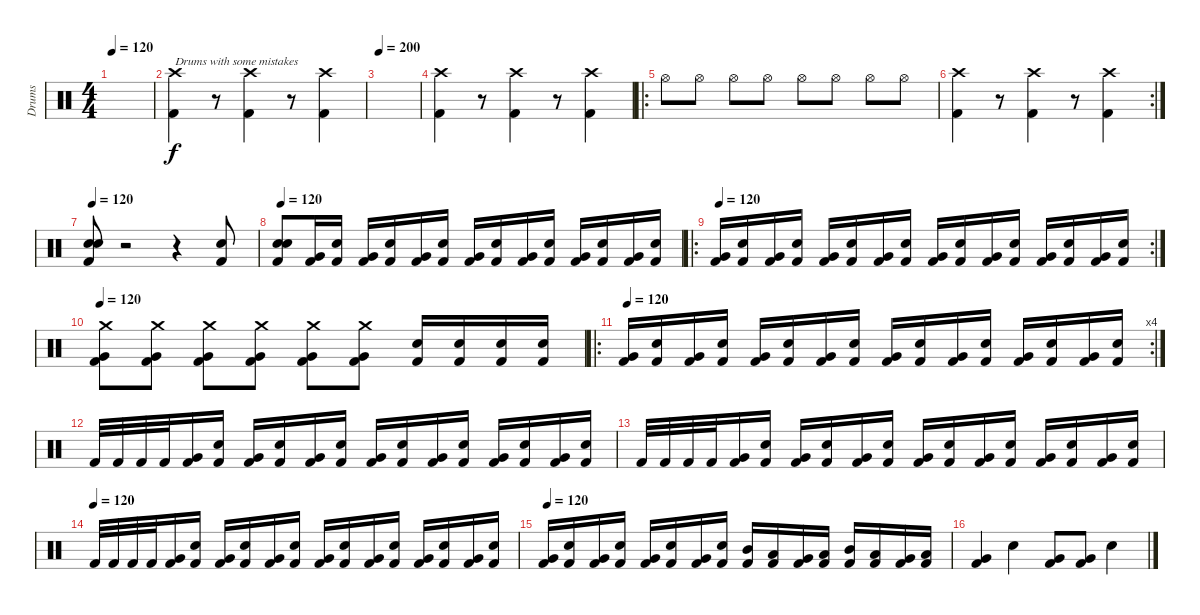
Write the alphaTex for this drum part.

\track ("Drums" "Drums") {instrument percussion}
\staff {score}
\articulation defaults
\ts (4 4)
\tempo 120
\tempo 200
\tempo 120
\clef neutral
\ks c
|
("Crash high (hit)" "Kick (hit) 2").4{txt "Drums with some mistakes"} r.8 ("Crash high (hit)" "Kick (hit) 2").4 r.8 ("Crash high (hit)" "Kick (hit) 2").4 |
\tempo 200
|
("Crash high (hit)" "Kick (hit) 2").4 r.8 ("Crash high (hit)" "Kick (hit) 2").4 r.8 ("Crash high (hit)" "Kick (hit) 2").4 |
\ro "Hi-Hat (open)".8 "Hi-Hat (open)".8 "Hi-Hat (open)".8 "Hi-Hat (open)".8 "Hi-Hat (open)".8 "Hi-Hat (open)".8 "Hi-Hat (open)".8 "Hi-Hat (open)".8
|
\rc 2
("Crash high (hit)" "Kick (hit) 2").4 r.8 ("Crash high (hit)" "Kick (hit) 2").4 r.8 ("Crash high (hit)" "Kick (hit) 2").4 |
\tempo 120
("Snare (hit) 2" "Snare (hit) 2" "Kick (hit) 2").8 r.2 r.4 ("Snare (hit) 2" "Kick (hit) 2").8 |
\tempo 120
("Snare (hit) 2" "Snare (hit) 2" "Kick (hit) 2").8 ("Very Low Tom (hit)" "Kick (hit) 2").16 ("Snare (hit) 2" "Kick (hit) 2").16 ("Very Low Tom (hit)" "Kick (hit) 2").16 ("Snare (hit) 2" "Kick (hit) 2").16 ("Very Low Tom (hit)" "Kick (hit) 2").16 ("Snare (hit) 2" "Kick (hit) 2").16 ("Very Low Tom (hit)" "Kick (hit) 2").16 ("Snare (hit) 2" "Kick (hit) 2").16 ("Very Low Tom (hit)" "Kick (hit) 2").16 ("Snare (hit) 2" "Kick (hit) 2").16 ("Very Low Tom (hit)" "Kick (hit) 2").16 ("Snare (hit) 2" "Kick (hit) 2").16 ("Very Low Tom (hit)" "Kick (hit) 2").16 ("Snare (hit) 2" "Kick (hit) 2").16 |
\ro
\rc 2
\tempo 120
("Very Low Tom (hit)" "Kick (hit) 2").16 ("Snare (hit) 2" "Kick (hit) 2").16 ("Very Low Tom (hit)" "Kick (hit) 2").16 ("Snare (hit) 2" "Kick (hit) 2").16 ("Very Low Tom (hit)" "Kick (hit) 2").16 ("Snare (hit) 2" "Kick (hit) 2").16 ("Very Low Tom (hit)" "Kick (hit) 2").16 ("Snare (hit) 2" "Kick (hit) 2").16 ("Very Low Tom (hit)" "Kick (hit) 2").16 ("Snare (hit) 2" "Kick (hit) 2").16 ("Very Low Tom (hit)" "Kick (hit) 2").16 ("Snare (hit) 2" "Kick (hit) 2").16 ("Very Low Tom (hit)" "Kick (hit) 2").16 ("Snare (hit) 2" "Kick (hit) 2").16 ("Very Low Tom (hit)" "Kick (hit) 2").16 ("Snare (hit) 2" "Kick (hit) 2").16 |
\tempo 120
("Kick (hit) 2" "Crash medium (hit)" "Very Low Tom (hit)").8 ("Kick (hit) 2" "Crash medium (hit)" "Very Low Tom (hit)").8 ("Kick (hit) 2" "Crash medium (hit)" "Very Low Tom (hit)").8 ("Kick (hit) 2" "Crash medium (hit)" "Very Low Tom (hit)").8 ("Kick (hit) 2" "Crash medium (hit)" "Very Low Tom (hit)").8 ("Kick (hit) 2" "Crash medium (hit)" "Very Low Tom (hit)").8 ("Snare (hit) 2" "Kick (hit) 2").16 ("Snare (hit) 2" "Kick (hit) 2").16 ("Snare (hit) 2" "Kick (hit) 2").16 ("Snare (hit) 2" "Kick (hit) 2").16 |
\ro
\rc 4
\tempo 120
("Very Low Tom (hit)" "Kick (hit) 2").16 ("Snare (hit) 2" "Kick (hit) 2").16 ("Very Low Tom (hit)" "Kick (hit) 2").16 ("Snare (hit) 2" "Kick (hit) 2").16 ("Very Low Tom (hit)" "Kick (hit) 2").16 ("Snare (hit) 2" "Kick (hit) 2").16 ("Very Low Tom (hit)" "Kick (hit) 2").16 ("Snare (hit) 2" "Kick (hit) 2").16 ("Very Low Tom (hit)" "Kick (hit) 2").16 ("Snare (hit) 2" "Kick (hit) 2").16 ("Very Low Tom (hit)" "Kick (hit) 2").16 ("Snare (hit) 2" "Kick (hit) 2").16 ("Very Low Tom (hit)" "Kick (hit) 2").16 ("Snare (hit) 2" "Kick (hit) 2").16 ("Very Low Tom (hit)" "Kick (hit) 2").16 ("Snare (hit) 2" "Kick (hit) 2").16 |
"Kick (hit) 2".32 "Kick (hit) 2".32 "Kick (hit) 2".32 "Kick (hit) 2".32 ("Very Low Tom (hit)" "Kick (hit) 2").16 ("Snare (hit) 2" "Kick (hit) 2").16 ("Very Low Tom (hit)" "Kick (hit) 2").16 ("Snare (hit) 2" "Kick (hit) 2").16 ("Very Low Tom (hit)" "Kick (hit) 2").16 ("Snare (hit) 2" "Kick (hit) 2").16 ("Very Low Tom (hit)" "Kick (hit) 2").16 ("Snare (hit) 2" "Kick (hit) 2").16 ("Very Low Tom (hit)" "Kick (hit) 2").16 ("Snare (hit) 2" "Kick (hit) 2").16 ("Very Low Tom (hit)" "Kick (hit) 2").16 ("Snare (hit) 2" "Kick (hit) 2").16 ("Very Low Tom (hit)" "Kick (hit) 2").16 ("Snare (hit) 2" "Kick (hit) 2").16 |
"Kick (hit) 2".32 "Kick (hit) 2".32 "Kick (hit) 2".32 "Kick (hit) 2".32 ("Very Low Tom (hit)" "Kick (hit) 2").16 ("Snare (hit) 2" "Kick (hit) 2").16 ("Very Low Tom (hit)" "Kick (hit) 2").16 ("Snare (hit) 2" "Kick (hit) 2").16 ("Very Low Tom (hit)" "Kick (hit) 2").16 ("Snare (hit) 2" "Kick (hit) 2").16 ("Very Low Tom (hit)" "Kick (hit) 2").16 ("Snare (hit) 2" "Kick (hit) 2").16 ("Very Low Tom (hit)" "Kick (hit) 2").16 ("Snare (hit) 2" "Kick (hit) 2").16 ("Very Low Tom (hit)" "Kick (hit) 2").16 ("Snare (hit) 2" "Kick (hit) 2").16 ("Very Low Tom (hit)" "Kick (hit) 2").16 ("Snare (hit) 2" "Kick (hit) 2").16 |
\tempo (120)
"Kick (hit) 2".32 "Kick (hit) 2".32 "Kick (hit) 2".32 "Kick (hit) 2".32 ("Very Low Tom (hit)" "Kick (hit) 2").16 ("Snare (hit) 2" "Kick (hit) 2").16 ("Very Low Tom (hit)" "Kick (hit) 2").16 ("Snare (hit) 2" "Kick (hit) 2").16 ("Very Low Tom (hit)" "Kick (hit) 2").16 ("Snare (hit) 2" "Kick (hit) 2").16 ("Very Low Tom (hit)" "Kick (hit) 2").16 ("Snare (hit) 2" "Kick (hit) 2").16 ("Very Low Tom (hit)" "Kick (hit) 2").16 ("Snare (hit) 2" "Kick (hit) 2").16 ("Very Low Tom (hit)" "Kick (hit) 2").16 ("Snare (hit) 2" "Kick (hit) 2").16 ("Very Low Tom (hit)" "Kick (hit) 2").16 ("Snare (hit) 2" "Kick (hit) 2").16 |
\tempo 120
("Very Low Tom (hit)" "Kick (hit) 2").16 ("Snare (hit) 2" "Kick (hit) 2").16 ("Very Low Tom (hit)" "Kick (hit) 2").16 ("Snare (hit) 2" "Kick (hit) 2").16 ("Very Low Tom (hit)" "Kick (hit) 2").16 ("Snare (hit) 2" "Kick (hit) 2").16 ("Very Low Tom (hit)" "Kick (hit) 2").16 ("Snare (hit) 2" "Kick (hit) 2").16 ("Mid Tom (hit)" "Kick (hit) 2").16 ("Low Tom (hit)" "Kick (hit) 2").16 ("Very Low Tom (hit)" "Kick (hit) 2").16 ("Low Floor Tom (hit)" "Kick (hit) 2").16 ("Mid Tom (hit)" "Kick (hit) 2").16 ("Low Tom (hit)" "Kick (hit) 2").16 ("Very Low Tom (hit)" "Kick (hit) 2").16 ("Low Floor Tom (hit)" "Kick (hit) 2").16 |
("Very Low Tom (hit)" "Kick (hit) 2").4 "Snare (hit) 2".4 ("Very Low Tom (hit)" "Kick (hit) 2").8 ("Very Low Tom (hit)" "Kick (hit) 2").8 "Snare (hit) 2".4
